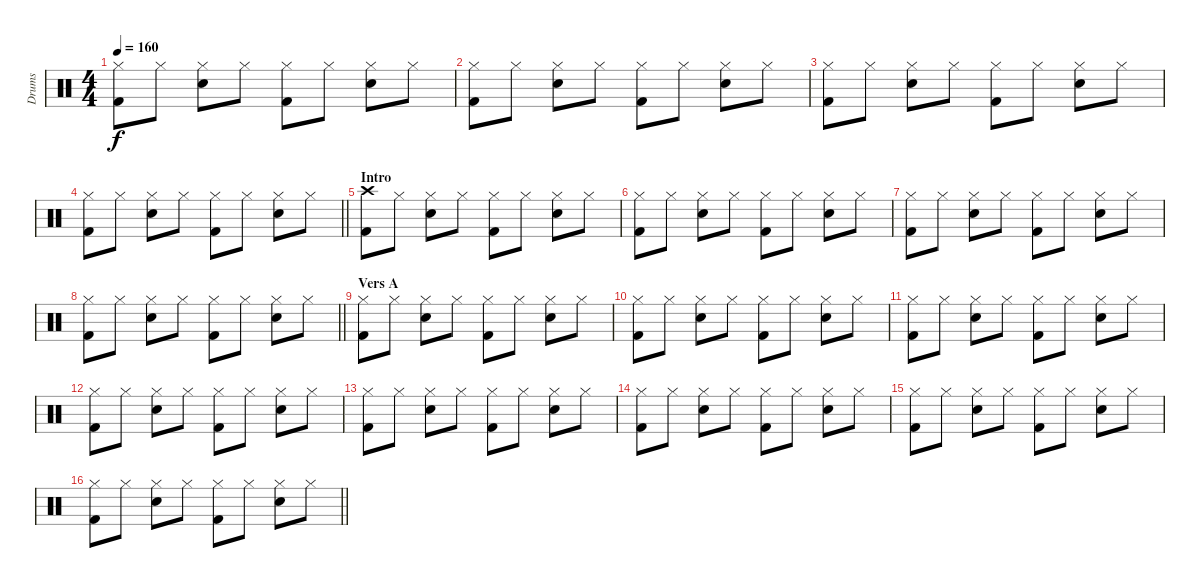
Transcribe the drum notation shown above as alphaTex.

\track ("Drums" "Drums") {instrument percussion}
\staff {score}
\articulation defaults
\ts (4 4)
\tempo 160
\clef neutral
\ks c
("Hi-Hat (closed)" "Kick (hit) 2").8{dy f} "Hi-Hat (closed)".8 ("Hi-Hat (closed)" "Snare (hit) 2").8 "Hi-Hat (closed)".8 ("Hi-Hat (closed)" "Kick (hit) 2").8 "Hi-Hat (closed)".8 ("Hi-Hat (closed)" "Snare (hit) 2").8 "Hi-Hat (closed)".8 |
("Hi-Hat (closed)" "Kick (hit) 2").8 "Hi-Hat (closed)".8 ("Hi-Hat (closed)" "Snare (hit) 2").8 "Hi-Hat (closed)".8 ("Hi-Hat (closed)" "Kick (hit) 2").8 "Hi-Hat (closed)".8 ("Hi-Hat (closed)" "Snare (hit) 2").8 "Hi-Hat (closed)".8 |
("Hi-Hat (closed)" "Kick (hit) 2").8 "Hi-Hat (closed)".8 ("Hi-Hat (closed)" "Snare (hit) 2").8 "Hi-Hat (closed)".8 ("Hi-Hat (closed)" "Kick (hit) 2").8 "Hi-Hat (closed)".8 ("Hi-Hat (closed)" "Snare (hit) 2").8 "Hi-Hat (closed)".8 |
\barLineRight lightlight
("Hi-Hat (closed)" "Kick (hit) 2").8 "Hi-Hat (closed)".8 ("Hi-Hat (closed)" "Snare (hit) 2").8 "Hi-Hat (closed)".8 ("Hi-Hat (closed)" "Kick (hit) 2").8 "Hi-Hat (closed)".8 ("Hi-Hat (closed)" "Snare (hit) 2").8 "Hi-Hat (closed)".8 |
\section ("" "Intro")
("Crash high (hit)" "Kick (hit) 2").8 "Hi-Hat (closed)".8 ("Hi-Hat (closed)" "Snare (hit) 2").8 "Hi-Hat (closed)".8 ("Hi-Hat (closed)" "Kick (hit) 2").8 "Hi-Hat (closed)".8 ("Hi-Hat (closed)" "Snare (hit) 2").8 "Hi-Hat (closed)".8 |
("Hi-Hat (closed)" "Kick (hit) 2").8 "Hi-Hat (closed)".8 ("Hi-Hat (closed)" "Snare (hit) 2").8 "Hi-Hat (closed)".8 ("Hi-Hat (closed)" "Kick (hit) 2").8 "Hi-Hat (closed)".8 ("Hi-Hat (closed)" "Snare (hit) 2").8 "Hi-Hat (closed)".8 |
("Hi-Hat (closed)" "Kick (hit) 2").8 "Hi-Hat (closed)".8 ("Hi-Hat (closed)" "Snare (hit) 2").8 "Hi-Hat (closed)".8 ("Hi-Hat (closed)" "Kick (hit) 2").8 "Hi-Hat (closed)".8 ("Hi-Hat (closed)" "Snare (hit) 2").8 "Hi-Hat (closed)".8 |
\barLineRight lightlight
("Hi-Hat (closed)" "Kick (hit) 2").8 "Hi-Hat (closed)".8 ("Hi-Hat (closed)" "Snare (hit) 2").8 "Hi-Hat (closed)".8 ("Hi-Hat (closed)" "Kick (hit) 2").8 "Hi-Hat (closed)".8 ("Hi-Hat (closed)" "Snare (hit) 2").8 "Hi-Hat (closed)".8 |
\section ("" "Vers A")
("Hi-Hat (closed)" "Kick (hit) 2").8 "Hi-Hat (closed)".8 ("Hi-Hat (closed)" "Snare (hit) 2").8 "Hi-Hat (closed)".8 ("Hi-Hat (closed)" "Kick (hit) 2").8 "Hi-Hat (closed)".8 ("Hi-Hat (closed)" "Snare (hit) 2").8 "Hi-Hat (closed)".8 |
("Hi-Hat (closed)" "Kick (hit) 2").8 "Hi-Hat (closed)".8 ("Hi-Hat (closed)" "Snare (hit) 2").8 "Hi-Hat (closed)".8 ("Hi-Hat (closed)" "Kick (hit) 2").8 "Hi-Hat (closed)".8 ("Hi-Hat (closed)" "Snare (hit) 2").8 "Hi-Hat (closed)".8 |
("Hi-Hat (closed)" "Kick (hit) 2").8 "Hi-Hat (closed)".8 ("Hi-Hat (closed)" "Snare (hit) 2").8 "Hi-Hat (closed)".8 ("Hi-Hat (closed)" "Kick (hit) 2").8 "Hi-Hat (closed)".8 ("Hi-Hat (closed)" "Snare (hit) 2").8 "Hi-Hat (closed)".8 |
("Hi-Hat (closed)" "Kick (hit) 2").8 "Hi-Hat (closed)".8 ("Hi-Hat (closed)" "Snare (hit) 2").8 "Hi-Hat (closed)".8 ("Hi-Hat (closed)" "Kick (hit) 2").8 "Hi-Hat (closed)".8 ("Hi-Hat (closed)" "Snare (hit) 2").8 "Hi-Hat (closed)".8 |
("Hi-Hat (closed)" "Kick (hit) 2").8 "Hi-Hat (closed)".8 ("Hi-Hat (closed)" "Snare (hit) 2").8 "Hi-Hat (closed)".8 ("Hi-Hat (closed)" "Kick (hit) 2").8 "Hi-Hat (closed)".8 ("Hi-Hat (closed)" "Snare (hit) 2").8 "Hi-Hat (closed)".8 |
("Hi-Hat (closed)" "Kick (hit) 2").8 "Hi-Hat (closed)".8 ("Hi-Hat (closed)" "Snare (hit) 2").8 "Hi-Hat (closed)".8 ("Hi-Hat (closed)" "Kick (hit) 2").8 "Hi-Hat (closed)".8 ("Hi-Hat (closed)" "Snare (hit) 2").8 "Hi-Hat (closed)".8 |
("Hi-Hat (closed)" "Kick (hit) 2").8 "Hi-Hat (closed)".8 ("Hi-Hat (closed)" "Snare (hit) 2").8 "Hi-Hat (closed)".8 ("Hi-Hat (closed)" "Kick (hit) 2").8 "Hi-Hat (closed)".8 ("Hi-Hat (closed)" "Snare (hit) 2").8 "Hi-Hat (closed)".8 |
\barLineRight lightlight
("Hi-Hat (closed)" "Kick (hit) 2").8 "Hi-Hat (closed)".8 ("Hi-Hat (closed)" "Snare (hit) 2").8 "Hi-Hat (closed)".8 ("Hi-Hat (closed)" "Kick (hit) 2").8 "Hi-Hat (closed)".8 ("Hi-Hat (closed)" "Snare (hit) 2").8 "Hi-Hat (closed)".8
